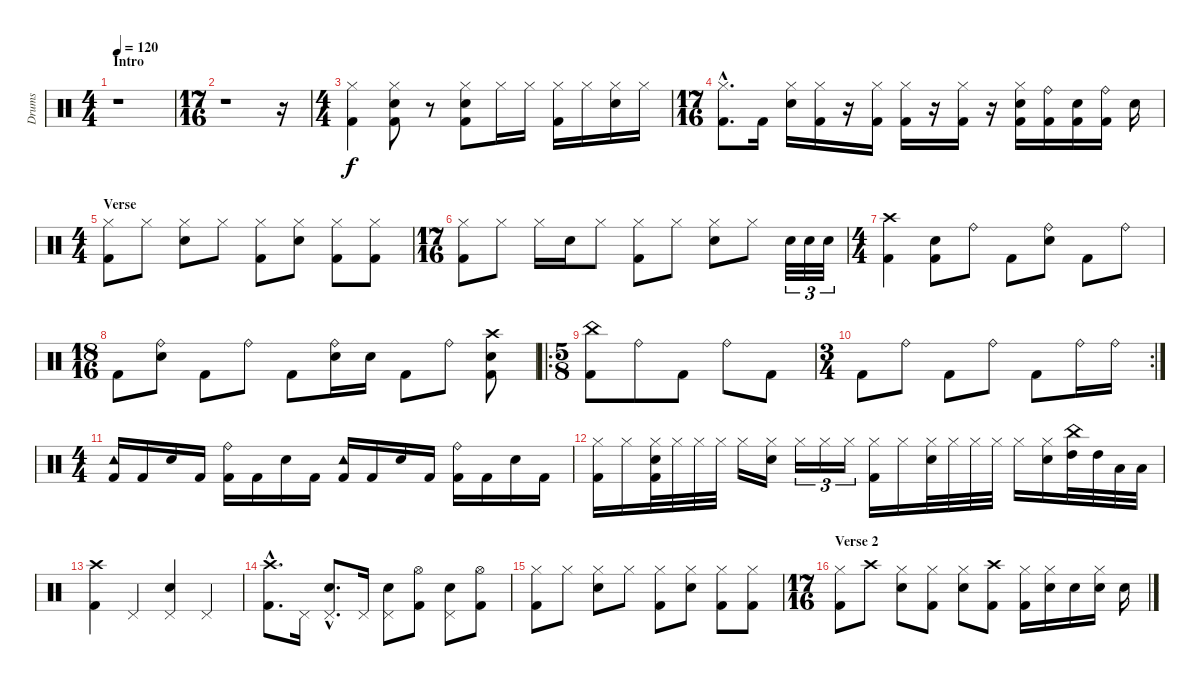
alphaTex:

\track ("Drums" "Drums") {instrument percussion}
\staff {score}
\articulation defaults
\ts (4 4)
\section ("" "Intro")
\tempo 120
\clef neutral
\ks c
r.1{dy f} |
\ts (17 16)
r.1 r.16 |
\ts (4 4)
("Hi-Hat (closed)" "Kick (hit) 2").4 ("Hi-Hat (closed)" "Electric Snare (hit)" "Kick (hit) 2").8 r.8 ("Hi-Hat (closed)" "Electric Snare (hit)" "Kick (hit) 2").8 "Hi-Hat (closed)".16 "Hi-Hat (closed)".16 ("Hi-Hat (closed)" "Kick (hit) 2").16 "Hi-Hat (closed)".16 ("Hi-Hat (closed)" "Electric Snare (hit)").16 "Hi-Hat (closed)".16 |
\ts (17 16)
("Hi-Hat (closed)"{hac} "Kick (hit) 2"{hac}).8{d} "Kick (hit) 2".16 ("Hi-Hat (closed)" "Electric Snare (hit)").16 ("Hi-Hat (closed)" "Kick (hit) 2").16 r.16 ("Hi-Hat (closed)" "Kick (hit) 2").16 ("Hi-Hat (closed)" "Kick (hit) 2").16 r.16 ("Hi-Hat (closed)" "Kick (hit) 2").16 r.16 ("Hi-Hat (closed)" "Electric Snare (hit)" "Kick (hit) 2").16 ("Ride (bell)" "Kick (hit) 2").16 ("Electric Snare (hit)" "Kick (hit) 2").16 ("Ride (bell)" "Kick (hit) 2").16 "Electric Snare (hit)".16 |
\ts (4 4)
\section ("" "Verse ")
("Hi-Hat (closed)" "Kick (hit) 2").8 "Hi-Hat (closed)".8 ("Hi-Hat (closed)" "Electric Snare (hit)").8 "Hi-Hat (closed)".8 ("Hi-Hat (closed)" "Kick (hit) 2").8 ("Hi-Hat (closed)" "Electric Snare (hit)").8 ("Hi-Hat (closed)" "Kick (hit) 2").8 ("Hi-Hat (closed)" "Kick (hit) 2").8 |
\ts (17 16)
("Hi-Hat (closed)" "Kick (hit) 2").8 "Hi-Hat (closed)".8 "Hi-Hat (closed)".16 "Electric Snare (hit)".16 "Hi-Hat (closed)".8 ("Hi-Hat (closed)" "Kick (hit) 2").8 "Hi-Hat (closed)".8 ("Hi-Hat (closed)" "Electric Snare (hit)").8 "Hi-Hat (closed)".8 "Electric Snare (hit)".32{tu (3 2)} "Electric Snare (hit)".32{tu (3 2)} "Electric Snare (hit)".32{tu (3 2)} |
\ts (4 4)
("Crash high (hit)" "Kick (hit) 2").4 ("Electric Snare (hit)" "Kick (hit) 2").8 "Ride (bell)".8 "Kick (hit) 2".8 ("Ride (bell)" "Electric Snare (hit)").8 "Kick (hit) 2".8 "Ride (bell)".8 |
\ts (18 16)
"Kick (hit) 2".8 ("Ride (bell)" "Electric Snare (hit)").8 "Kick (hit) 2".8 "Ride (bell)".8 "Kick (hit) 2".8 ("Ride (bell)" "Electric Snare (hit)").16 "Electric Snare (hit)".16 "Kick (hit) 2".8 "Ride (bell)".8 ("Crash high (hit)" "Electric Snare (hit)" "Kick (hit) 2").8 |
\ro
\ts (5 8)
("China (hit)" "Kick (hit) 2").8 "Ride (bell)".8 "Kick (hit) 2".8 "Ride (bell)".8 "Kick (hit) 2".8 |
\rc 2
\ts (3 4)
"Kick (hit) 2".8 "Ride (bell)".8 "Kick (hit) 2".8 "Ride (bell)".8 "Kick (hit) 2".8 "Ride (bell)".16 "Ride (bell)".16 |
\ts (4 4)
("Tambourine (hit)" "Kick (hit) 2").16 "Kick (hit) 2".16 "Electric Snare (hit)".16 "Kick (hit) 2".16 ("Ride (bell)" "Kick (hit) 2").16 "Kick (hit) 2".16 "Electric Snare (hit)".16 "Kick (hit) 2".16 ("Tambourine (hit)" "Kick (hit) 2").16 "Kick (hit) 2".16 "Electric Snare (hit)".16 "Kick (hit) 2".16 ("Ride (bell)" "Kick (hit) 2").16 "Kick (hit) 2".16 "Electric Snare (hit)".16 "Kick (hit) 2".16 |
("Hi-Hat (closed)" "Kick (hit) 2").16 "Hi-Hat (closed)".16 ("Hi-Hat (closed)" "Electric Snare (hit)" "Kick (hit) 2").32 "Hi-Hat (closed)".32 "Hi-Hat (closed)".32 "Hi-Hat (closed)".32 "Hi-Hat (closed)".16 ("Hi-Hat (closed)" "Electric Snare (hit)").16 "Hi-Hat (closed)".16{tu (3 2)} "Hi-Hat (closed)".16{tu (3 2)} "Hi-Hat (closed)".16{tu (3 2)} ("Hi-Hat (closed)" "Kick (hit) 2").16 "Hi-Hat (closed)".16 ("Hi-Hat (closed)" "Electric Snare (hit)").32 "Hi-Hat (closed)".32 "Hi-Hat (closed)".32 "Hi-Hat (closed)".32 "Hi-Hat (closed)".16 ("Hi-Hat (closed)" "Electric Snare (hit)").16 ("China (hit)" "High Tom (hit)").32 "High Tom (hit)".32 "Low Tom (hit)".32 "Low Tom (hit)".32 |
("Crash high (hit)" "Kick (hit) 2").4 "Pedal Hi-Hat (hit)".4 ("Pedal Hi-Hat (hit)" "Electric Snare (hit)").4 "Pedal Hi-Hat (hit)".4 |
("Crash high (hit)"{hac} "Kick (hit) 2"{hac}).8{d} "Pedal Hi-Hat (hit)".16 ("Pedal Hi-Hat (hit)"{hac} "Electric Snare (hit)"{hac}).8{d} "Pedal Hi-Hat (hit)".16 ("Pedal Hi-Hat (hit)" "Electric Snare (hit)").8 ("Hi-Hat (open)" "Kick (hit) 2").8 ("Pedal Hi-Hat (hit)" "Electric Snare (hit)").8 ("Hi-Hat (open)" "Kick (hit) 2").8 |
("Hi-Hat (closed)" "Kick (hit) 2").8 "Hi-Hat (closed)".8 ("Hi-Hat (closed)" "Electric Snare (hit)").8 "Hi-Hat (closed)".8 ("Hi-Hat (closed)" "Kick (hit) 2").8 ("Hi-Hat (closed)" "Electric Snare (hit)").8 ("Hi-Hat (closed)" "Kick (hit) 2").8 ("Hi-Hat (closed)" "Kick (hit) 2").8 |
\ts (17 16)
\section ("" "Verse 2")
("Hi-Hat (closed)" "Kick (hit) 2").8 "Crash high (hit)".8 ("Hi-Hat (closed)" "Electric Snare (hit)").8 ("Hi-Hat (closed)" "Kick (hit) 2").8 ("Hi-Hat (closed)" "Electric Snare (hit)").8 ("Crash high (hit)" "Kick (hit) 2").8 ("Hi-Hat (closed)" "Kick (hit) 2").16 ("Hi-Hat (closed)" "Electric Snare (hit)").16 "Electric Snare (hit)".16 ("Hi-Hat (closed)" "Electric Snare (hit)").16 "Electric Snare (hit)".16
